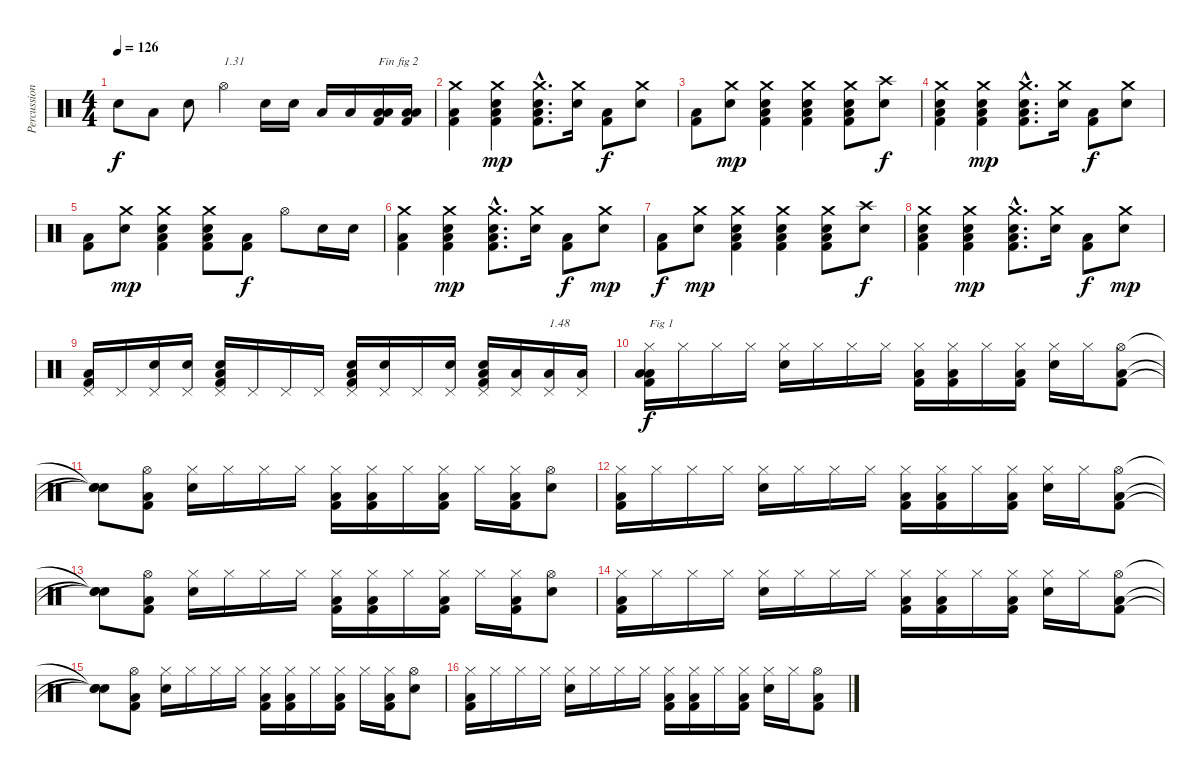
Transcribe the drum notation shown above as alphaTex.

\track ("Percussions" "Percussion") {instrument percussion}
\staff {score}
\articulation defaults
\ts (4 4)
\tempo 126
\clef neutral
\ks c "Snare (hit)"{t}.8{dy f} "Low Tom (hit)".8 "Snare (hit) 2".8 "Hi-Hat (open)".4{txt "1.31"} "Snare (hit) 2".16 "Snare (hit) 2".16 "Low Tom (hit)".16 "Low Tom (hit)".16
("Kick (hit) 2" "Low Floor Tom (hit)" "Low Tom (hit)").16{txt "Fin fig 2"} ("Kick (hit) 2" "Low Floor Tom (hit)" "Low Tom (hit)").16 |
("Kick (hit) 2" "Low Floor Tom (hit)" "Crash medium (hit)").4 ("Kick (hit) 2" "Low Floor Tom (hit)" "Snare (hit) 2" "Crash medium (hit)").4{dy mp} ("Kick (hit) 2"{hac} "Low Floor Tom (hit)"{hac} "Snare (hit) 2"{hac} "Crash medium (hit)"{hac}).8{d} ("Snare (hit) 2" "Crash medium (hit)").16 ("Kick (hit) 2" "Low Floor Tom (hit)").8{dy f} ("Snare (hit) 2" "Crash medium (hit)").8 |
("Kick (hit) 2" "Low Floor Tom (hit)").8 ("Snare (hit) 2" "Crash medium (hit)").8{dy mp} ("Kick (hit) 2" "Low Floor Tom (hit)" "Snare (hit) 2" "Crash medium (hit)").4 ("Kick (hit) 2" "Low Floor Tom (hit)" "Snare (hit) 2" "Crash medium (hit)").4 ("Kick (hit) 2" "Low Floor Tom (hit)" "Snare (hit) 2" "Crash medium (hit)").8 ("Snare (hit) 2" "Crash high (hit)").8{dy f} |
("Kick (hit) 2" "Low Floor Tom (hit)" "Snare (hit) 2" "Crash medium (hit)").4 ("Kick (hit) 2" "Low Floor Tom (hit)" "Snare (hit) 2" "Crash medium (hit)").4{dy mp} ("Kick (hit) 2"{hac} "Low Floor Tom (hit)"{hac} "Snare (hit) 2"{hac} "Crash medium (hit)"{hac}).8{d} ("Snare (hit) 2" "Crash medium (hit)").16 ("Kick (hit) 2" "Low Floor Tom (hit)").8{dy f} ("Snare (hit) 2" "Crash medium (hit)").8 |
("Kick (hit) 2" "Low Floor Tom (hit)").8 ("Snare (hit) 2" "Crash medium (hit)").8{dy mp} ("Kick (hit) 2" "Low Floor Tom (hit)" "Snare (hit) 2" "Crash medium (hit)").4 ("Kick (hit) 2" "Low Floor Tom (hit)" "Snare (hit) 2" "Crash medium (hit)").8 ("Kick (hit) 2" "Low Floor Tom (hit)").8{dy f} "Hi-Hat (open)".8 "Snare (hit) 2".16 "Snare (hit) 2".16 |
("Kick (hit) 2" "Low Floor Tom (hit)" "Crash medium (hit)").4 ("Kick (hit) 2" "Low Floor Tom (hit)" "Snare (hit) 2" "Crash medium (hit)").4{dy mp} ("Kick (hit) 2"{hac} "Low Floor Tom (hit)"{hac} "Snare (hit) 2"{hac} "Crash medium (hit)"{hac}).8{d} ("Snare (hit) 2" "Crash medium (hit)").16 ("Kick (hit) 2" "Low Floor Tom (hit)").8{dy f} ("Snare (hit) 2" "Crash medium (hit)").8{dy mp} |
("Kick (hit) 2" "Low Floor Tom (hit)").8{dy f} ("Snare (hit) 2" "Crash medium (hit)").8{dy mp} ("Kick (hit) 2" "Low Floor Tom (hit)" "Snare (hit) 2" "Crash medium (hit)").4 ("Kick (hit) 2" "Low Floor Tom (hit)" "Snare (hit) 2" "Crash medium (hit)").4 ("Kick (hit) 2" "Low Floor Tom (hit)" "Snare (hit) 2" "Crash medium (hit)").8 ("Snare (hit) 2" "Crash high (hit)").8{dy f} |
("Kick (hit) 2" "Low Floor Tom (hit)" "Snare (hit) 2" "Crash medium (hit)").4 ("Kick (hit) 2" "Low Floor Tom (hit)" "Snare (hit) 2" "Crash medium (hit)").4{dy mp} ("Kick (hit) 2"{hac} "Low Floor Tom (hit)"{hac} "Snare (hit) 2"{hac} "Crash medium (hit)"{hac}).8{d} ("Snare (hit) 2" "Crash medium (hit)").16 ("Kick (hit) 2" "Low Floor Tom (hit)").8{dy f} ("Snare (hit) 2" "Crash medium (hit)").8{dy mp} |
("Kick (hit) 2" "Low Floor Tom (hit)" "Pedal Hi-Hat (hit)").16 "Pedal Hi-Hat (hit)".16 ("Snare (hit) 2" "Pedal Hi-Hat (hit)").16 ("Snare (hit) 2" "Pedal Hi-Hat (hit)").16 ("Kick (hit) 2" "Low Floor Tom (hit)" "Snare (hit) 2" "Pedal Hi-Hat (hit)").16 "Pedal Hi-Hat (hit)".16 "Pedal Hi-Hat (hit)".16 "Pedal Hi-Hat (hit)".16 ("Kick (hit) 2" "Low Floor Tom (hit)" "Snare (hit) 2" "Pedal Hi-Hat (hit)").16 ("Snare (hit) 2" "Pedal Hi-Hat (hit)").16 "Pedal Hi-Hat (hit)".16 ("Snare (hit) 2" "Pedal Hi-Hat (hit)").16 ("Kick (hit) 2" "Low Floor Tom (hit)" "Snare (hit) 2" "Pedal Hi-Hat (hit)").16 ("Low Tom (hit)" "Pedal Hi-Hat (hit)").16 ("Low Tom (hit)" "Pedal Hi-Hat (hit)").16{txt "1.48"} ("Low Tom (hit)" "Pedal Hi-Hat (hit)").16 |
("Kick (hit) 2" "Low Floor Tom (hit)" "Low Tom (hit)" "Hi-Hat (closed)").16{txt "Fig 1" dy f} "Hi-Hat (closed)".16 "Hi-Hat (closed)".16 "Hi-Hat (closed)".16 ("Snare (hit) 2" "Hi-Hat (closed)").16 "Hi-Hat (closed)".16 "Hi-Hat (closed)".16 "Hi-Hat (closed)".16 ("Kick (hit) 2" "Low Floor Tom (hit)" "Hi-Hat (closed)").16 ("Kick (hit) 2" "Low Floor Tom (hit)" "Hi-Hat (closed)").16 "Hi-Hat (closed)".16 ("Kick (hit) 2" "Low Floor Tom (hit)" "Hi-Hat (closed)").16 ("Snare (hit) 2" "Hi-Hat (closed)").16 "Hi-Hat (closed)".16 ("Kick (hit) 2" "Low Floor Tom (hit)" "Hi-Hat (open)").8 |
("Snare (hit)"{t} "Snare (hit)"{t} "Snare (hit)"{t}).8 ("Kick (hit) 2" "Low Floor Tom (hit)" "Hi-Hat (open)").8 ("Snare (hit) 2" "Hi-Hat (closed)").16 "Hi-Hat (closed)".16 "Hi-Hat (closed)".16 "Hi-Hat (closed)".16 ("Kick (hit) 2" "Low Floor Tom (hit)" "Hi-Hat (closed)").16 ("Kick (hit) 2" "Low Floor Tom (hit)" "Hi-Hat (closed)").16 "Hi-Hat (closed)".16 ("Kick (hit) 2" "Low Floor Tom (hit)" "Hi-Hat (closed)").16 "Hi-Hat (closed)".16 ("Kick (hit) 2" "Low Floor Tom (hit)" "Hi-Hat (closed)").16 ("Snare (hit) 2" "Hi-Hat (open)").8 |
("Kick (hit) 2" "Low Floor Tom (hit)" "Hi-Hat (closed)").16 "Hi-Hat (closed)".16 "Hi-Hat (closed)".16 "Hi-Hat (closed)".16 ("Snare (hit) 2" "Hi-Hat (closed)").16 "Hi-Hat (closed)".16 "Hi-Hat (closed)".16 "Hi-Hat (closed)".16 ("Kick (hit) 2" "Low Floor Tom (hit)" "Hi-Hat (closed)").16 ("Kick (hit) 2" "Low Floor Tom (hit)" "Hi-Hat (closed)").16 "Hi-Hat (closed)".16 ("Kick (hit) 2" "Low Floor Tom (hit)" "Hi-Hat (closed)").16 ("Snare (hit) 2" "Hi-Hat (closed)").16 "Hi-Hat (closed)".16 ("Kick (hit) 2" "Low Floor Tom (hit)" "Hi-Hat (open)").8 |
("Snare (hit)"{t} "Snare (hit)"{t} "Snare (hit)"{t}).8 ("Kick (hit) 2" "Low Floor Tom (hit)" "Hi-Hat (open)").8 ("Snare (hit) 2" "Hi-Hat (closed)").16 "Hi-Hat (closed)".16 "Hi-Hat (closed)".16 "Hi-Hat (closed)".16 ("Kick (hit) 2" "Low Floor Tom (hit)" "Hi-Hat (closed)").16 ("Kick (hit) 2" "Low Floor Tom (hit)" "Hi-Hat (closed)").16 "Hi-Hat (closed)".16 ("Kick (hit) 2" "Low Floor Tom (hit)" "Hi-Hat (closed)").16 "Hi-Hat (closed)".16 ("Kick (hit) 2" "Low Floor Tom (hit)" "Hi-Hat (closed)").16 ("Snare (hit) 2" "Hi-Hat (open)").8 |
("Kick (hit) 2" "Low Floor Tom (hit)" "Hi-Hat (closed)").16 "Hi-Hat (closed)".16 "Hi-Hat (closed)".16 "Hi-Hat (closed)".16 ("Snare (hit) 2" "Hi-Hat (closed)").16 "Hi-Hat (closed)".16 "Hi-Hat (closed)".16 "Hi-Hat (closed)".16 ("Kick (hit) 2" "Low Floor Tom (hit)" "Hi-Hat (closed)").16 ("Kick (hit) 2" "Low Floor Tom (hit)" "Hi-Hat (closed)").16 "Hi-Hat (closed)".16 ("Kick (hit) 2" "Low Floor Tom (hit)" "Hi-Hat (closed)").16 ("Snare (hit) 2" "Hi-Hat (closed)").16 "Hi-Hat (closed)".16 ("Kick (hit) 2" "Low Floor Tom (hit)" "Hi-Hat (open)").8 |
("Snare (hit)"{t} "Snare (hit)"{t} "Snare (hit)"{t}).8 ("Kick (hit) 2" "Low Floor Tom (hit)" "Hi-Hat (open)").8 ("Snare (hit) 2" "Hi-Hat (closed)").16 "Hi-Hat (closed)".16 "Hi-Hat (closed)".16 "Hi-Hat (closed)".16 ("Kick (hit) 2" "Low Floor Tom (hit)" "Hi-Hat (closed)").16 ("Kick (hit) 2" "Low Floor Tom (hit)" "Hi-Hat (closed)").16 "Hi-Hat (closed)".16 ("Kick (hit) 2" "Low Floor Tom (hit)" "Hi-Hat (closed)").16 "Hi-Hat (closed)".16 ("Kick (hit) 2" "Low Floor Tom (hit)" "Hi-Hat (closed)").16 ("Snare (hit) 2" "Hi-Hat (open)").8 |
("Kick (hit) 2" "Low Floor Tom (hit)" "Hi-Hat (closed)").16 "Hi-Hat (closed)".16 "Hi-Hat (closed)".16 "Hi-Hat (closed)".16 ("Snare (hit) 2" "Hi-Hat (closed)").16 "Hi-Hat (closed)".16 "Hi-Hat (closed)".16 "Hi-Hat (closed)".16 ("Kick (hit) 2" "Low Floor Tom (hit)" "Hi-Hat (closed)").16 ("Kick (hit) 2" "Low Floor Tom (hit)" "Hi-Hat (closed)").16 "Hi-Hat (closed)".16 ("Kick (hit) 2" "Low Floor Tom (hit)" "Hi-Hat (closed)").16 ("Snare (hit) 2" "Hi-Hat (closed)").16 "Hi-Hat (closed)".16 ("Kick (hit) 2" "Low Floor Tom (hit)" "Hi-Hat (open)").8
